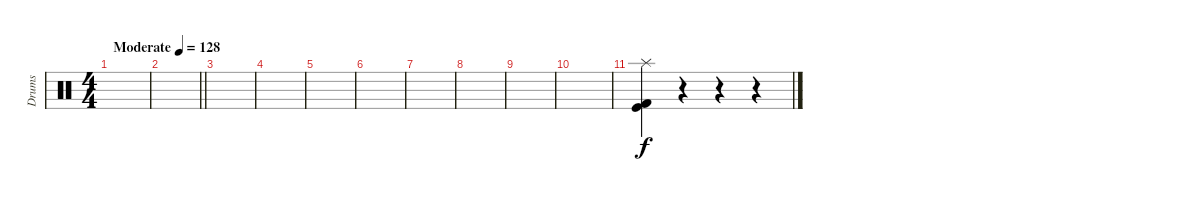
\track ("Drums" "Drums") {instrument percussion}
\staff {score}
\articulation defaults
\ts (4 4)
\tempo (128 "Moderate")
\clef neutral
\ks c
|
\barLineRight lightlight
|
|
|
|
|
|
|
|
|
("Splash (hit)" "Kick (hit) 2" "Kick (hit)").4 r.4 r.4 r.4
